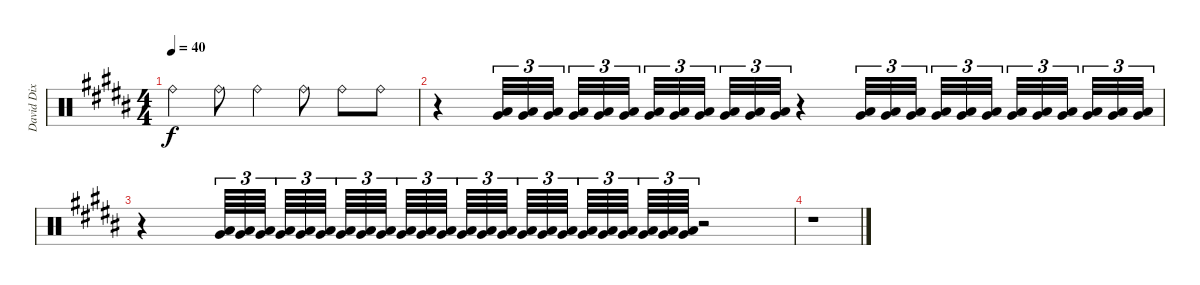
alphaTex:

\track ("David Dix Drums" "David Dix ") {instrument percussion}
\staff {score}
\articulation defaults
\ts (4 4)
\tempo 40
\clef neutral
\ks g#minor "Ride (bell)".4{dy f} "Ride (bell)".8 "Ride (bell)".4 "Ride (bell)".8 "Ride (bell)".8 "Ride (bell)".8
|
r.4 ("Very Low Tom (hit)" "Low Floor Tom (hit)").32{tu (3 2) volume 5} ("Very Low Tom (hit)" "Low Floor Tom (hit)").32{tu (3 2)} ("Very Low Tom (hit)" "Low Floor Tom (hit)").32{tu (3 2) beam splitsecondary} ("Very Low Tom (hit)" "Low Floor Tom (hit)").32{tu (3 2)} ("Very Low Tom (hit)" "Low Floor Tom (hit)").32{tu (3 2)} ("Very Low Tom (hit)" "Low Floor Tom (hit)").32{tu (3 2) beam splitsecondary} ("Very Low Tom (hit)" "Low Floor Tom (hit)").32{tu (3 2)} ("Very Low Tom (hit)" "Low Floor Tom (hit)").32{tu (3 2)} ("Very Low Tom (hit)" "Low Floor Tom (hit)").32{tu (3 2) beam splitsecondary} ("Very Low Tom (hit)" "Low Floor Tom (hit)").32{tu (3 2)} ("Very Low Tom (hit)" "Low Floor Tom (hit)").32{tu (3 2)} ("Very Low Tom (hit)" "Low Floor Tom (hit)").32{tu (3 2)} r.4 ("Very Low Tom (hit)" "Low Floor Tom (hit)").32{tu (3 2)} ("Very Low Tom (hit)" "Low Floor Tom (hit)").32{tu (3 2)} ("Very Low Tom (hit)" "Low Floor Tom (hit)").32{tu (3 2) beam splitsecondary} ("Very Low Tom (hit)" "Low Floor Tom (hit)").32{tu (3 2)} ("Very Low Tom (hit)" "Low Floor Tom (hit)").32{tu (3 2)} ("Very Low Tom (hit)" "Low Floor Tom (hit)").32{tu (3 2) beam splitsecondary} ("Very Low Tom (hit)" "Low Floor Tom (hit)").32{tu (3 2)} ("Very Low Tom (hit)" "Low Floor Tom (hit)").32{tu (3 2)} ("Very Low Tom (hit)" "Low Floor Tom (hit)").32{tu (3 2) beam splitsecondary} ("Very Low Tom (hit)" "Low Floor Tom (hit)").32{tu (3 2)} ("Very Low Tom (hit)" "Low Floor Tom (hit)").32{tu (3 2)} ("Very Low Tom (hit)" "Low Floor Tom (hit)").32{tu (3 2)} |
r.4 ("Very Low Tom (hit)" "Low Floor Tom (hit)").64{tu (3 2) volume 7} ("Very Low Tom (hit)" "Low Floor Tom (hit)").64{tu (3 2)} ("Very Low Tom (hit)" "Low Floor Tom (hit)").64{tu (3 2) beam splitsecondary} ("Very Low Tom (hit)" "Low Floor Tom (hit)").64{tu (3 2)} ("Very Low Tom (hit)" "Low Floor Tom (hit)").64{tu (3 2)} ("Very Low Tom (hit)" "Low Floor Tom (hit)").64{tu (3 2) beam splitsecondary} ("Very Low Tom (hit)" "Low Floor Tom (hit)").64{tu (3 2)} ("Very Low Tom (hit)" "Low Floor Tom (hit)").64{tu (3 2)} ("Very Low Tom (hit)" "Low Floor Tom (hit)").64{tu (3 2) beam splitsecondary} ("Very Low Tom (hit)" "Low Floor Tom (hit)").64{tu (3 2)} ("Very Low Tom (hit)" "Low Floor Tom (hit)").64{tu (3 2)} ("Very Low Tom (hit)" "Low Floor Tom (hit)").64{tu (3 2) beam splitsecondary} ("Very Low Tom (hit)" "Low Floor Tom (hit)").64{tu (3 2)} ("Very Low Tom (hit)" "Low Floor Tom (hit)").64{tu (3 2)} ("Very Low Tom (hit)" "Low Floor Tom (hit)").64{tu (3 2) beam splitsecondary} ("Very Low Tom (hit)" "Low Floor Tom (hit)").64{tu (3 2)} ("Very Low Tom (hit)" "Low Floor Tom (hit)").64{tu (3 2)} ("Very Low Tom (hit)" "Low Floor Tom (hit)").64{tu (3 2) beam splitsecondary} ("Very Low Tom (hit)" "Low Floor Tom (hit)").64{tu (3 2)} ("Very Low Tom (hit)" "Low Floor Tom (hit)").64{tu (3 2)} ("Very Low Tom (hit)" "Low Floor Tom (hit)").64{tu (3 2) beam splitsecondary} ("Very Low Tom (hit)" "Low Floor Tom (hit)").64{tu (3 2)} ("Very Low Tom (hit)" "Low Floor Tom (hit)").64{tu (3 2)} ("Very Low Tom (hit)" "Low Floor Tom (hit)").64{tu (3 2)} r.2 |
r.1
